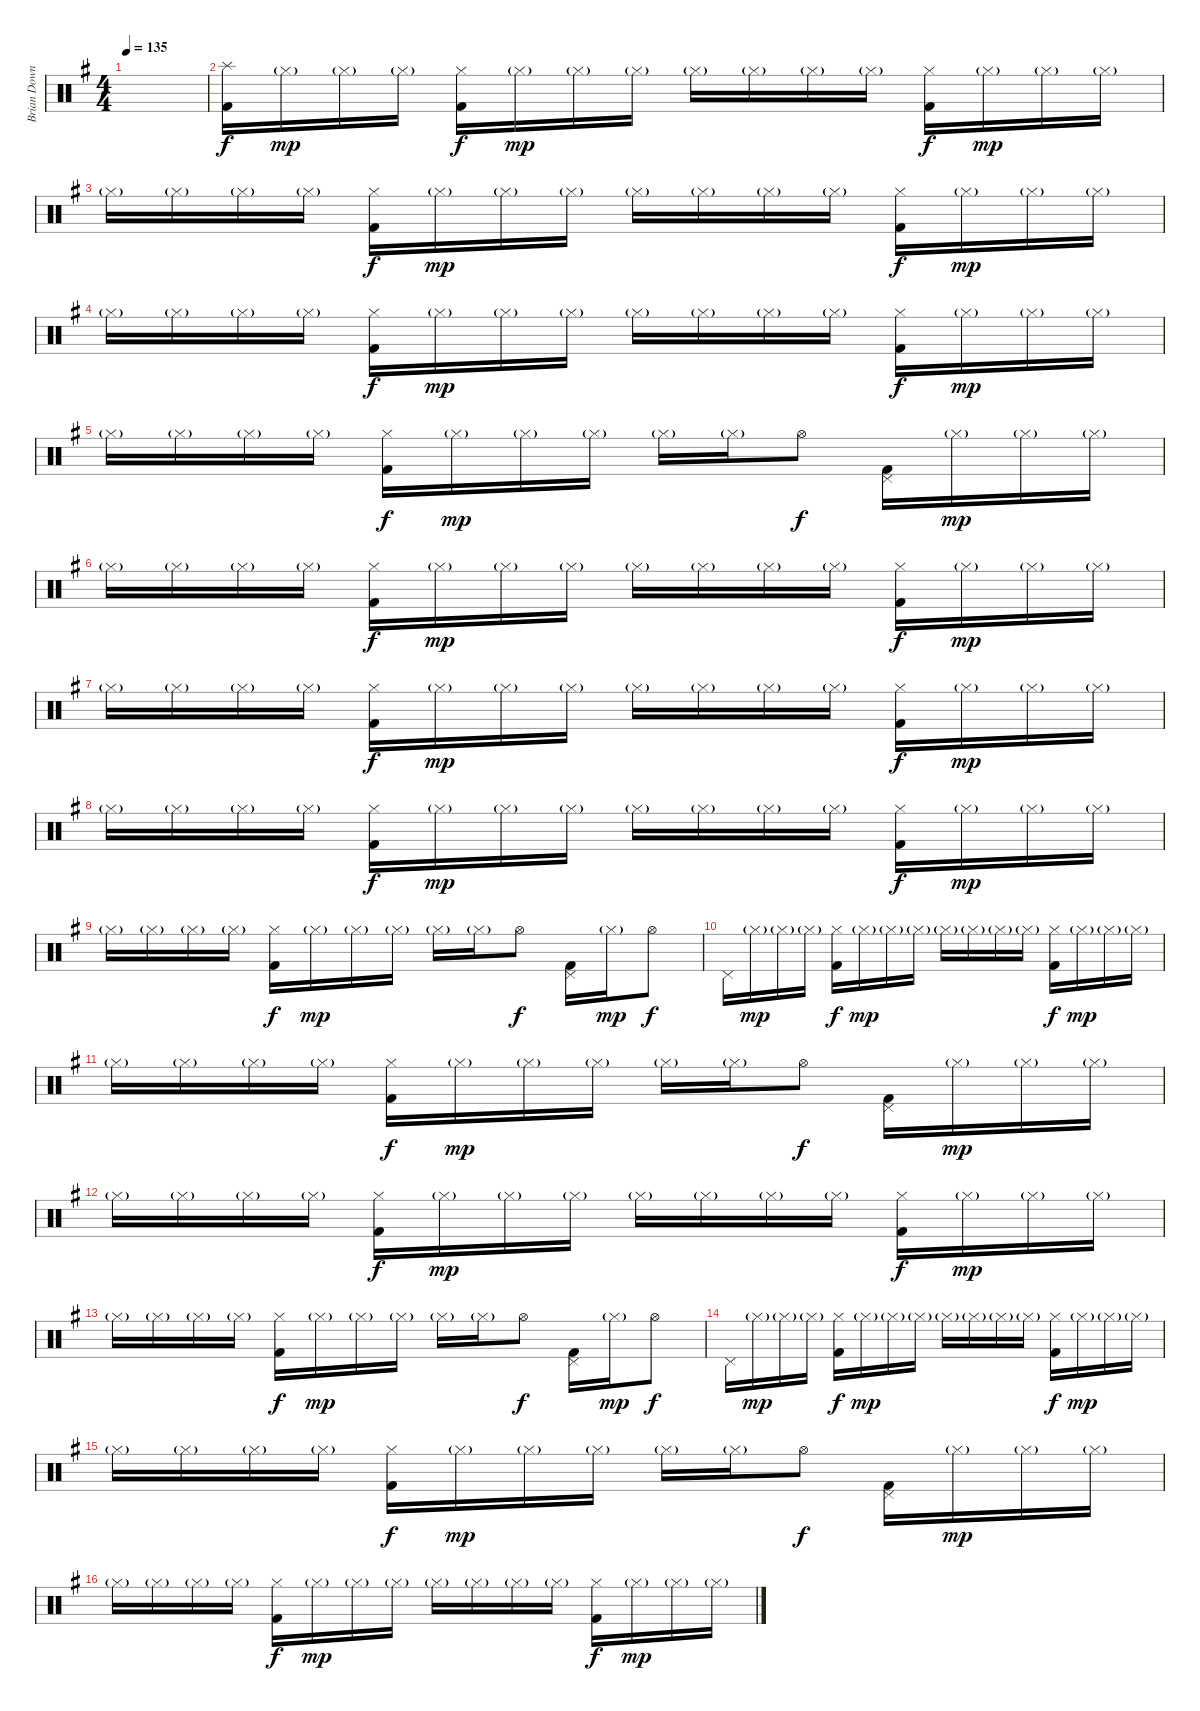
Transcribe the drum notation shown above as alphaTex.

\track ("Brian Downey" "Brian Down") {instrument percussion}
\staff {score}
\articulation defaults
\ts (4 4)
\tempo 135
\clef neutral
\ks eminor
|
("Splash (hit)" "Kick (hit) 2").16 "Hi-Hat (closed)"{g}.16{dy mp} "Hi-Hat (closed)"{g}.16 "Hi-Hat (closed)"{g}.16 ("Hi-Hat (closed)" "Kick (hit) 2").16{dy f} "Hi-Hat (closed)"{g}.16{dy mp} "Hi-Hat (closed)"{g}.16 "Hi-Hat (closed)"{g}.16 "Hi-Hat (closed)"{g}.16 "Hi-Hat (closed)"{g}.16 "Hi-Hat (closed)"{g}.16 "Hi-Hat (closed)"{g}.16 ("Hi-Hat (closed)" "Kick (hit) 2").16{dy f} "Hi-Hat (closed)"{g}.16{dy mp} "Hi-Hat (closed)"{g}.16 "Hi-Hat (closed)"{g}.16 |
"Hi-Hat (closed)"{g}.16 "Hi-Hat (closed)"{g}.16 "Hi-Hat (closed)"{g}.16 "Hi-Hat (closed)"{g}.16 ("Hi-Hat (closed)" "Kick (hit) 2").16{dy f} "Hi-Hat (closed)"{g}.16{dy mp} "Hi-Hat (closed)"{g}.16 "Hi-Hat (closed)"{g}.16 "Hi-Hat (closed)"{g}.16 "Hi-Hat (closed)"{g}.16 "Hi-Hat (closed)"{g}.16 "Hi-Hat (closed)"{g}.16 ("Hi-Hat (closed)" "Kick (hit) 2").16{dy f} "Hi-Hat (closed)"{g}.16{dy mp} "Hi-Hat (closed)"{g}.16 "Hi-Hat (closed)"{g}.16 |
"Hi-Hat (closed)"{g}.16 "Hi-Hat (closed)"{g}.16 "Hi-Hat (closed)"{g}.16 "Hi-Hat (closed)"{g}.16 ("Hi-Hat (closed)" "Kick (hit) 2").16{dy f} "Hi-Hat (closed)"{g}.16{dy mp} "Hi-Hat (closed)"{g}.16 "Hi-Hat (closed)"{g}.16 "Hi-Hat (closed)"{g}.16 "Hi-Hat (closed)"{g}.16 "Hi-Hat (closed)"{g}.16 "Hi-Hat (closed)"{g}.16 ("Hi-Hat (closed)" "Kick (hit) 2").16{dy f} "Hi-Hat (closed)"{g}.16{dy mp} "Hi-Hat (closed)"{g}.16 "Hi-Hat (closed)"{g}.16 |
"Hi-Hat (closed)"{g}.16 "Hi-Hat (closed)"{g}.16 "Hi-Hat (closed)"{g}.16 "Hi-Hat (closed)"{g}.16 ("Hi-Hat (closed)" "Kick (hit) 2").16{dy f} "Hi-Hat (closed)"{g}.16{dy mp} "Hi-Hat (closed)"{g}.16 "Hi-Hat (closed)"{g}.16 "Hi-Hat (closed)"{g}.16 "Hi-Hat (closed)"{g}.16 "Hi-Hat (open)".8{dy f} ("Pedal Hi-Hat (hit)" "Kick (hit) 2").16 "Hi-Hat (closed)"{g}.16{dy mp} "Hi-Hat (closed)"{g}.16 "Hi-Hat (closed)"{g}.16 |
"Hi-Hat (closed)"{g}.16 "Hi-Hat (closed)"{g}.16 "Hi-Hat (closed)"{g}.16 "Hi-Hat (closed)"{g}.16 ("Hi-Hat (closed)" "Kick (hit) 2").16{dy f} "Hi-Hat (closed)"{g}.16{dy mp} "Hi-Hat (closed)"{g}.16 "Hi-Hat (closed)"{g}.16 "Hi-Hat (closed)"{g}.16 "Hi-Hat (closed)"{g}.16 "Hi-Hat (closed)"{g}.16 "Hi-Hat (closed)"{g}.16 ("Hi-Hat (closed)" "Kick (hit) 2").16{dy f} "Hi-Hat (closed)"{g}.16{dy mp} "Hi-Hat (closed)"{g}.16 "Hi-Hat (closed)"{g}.16 |
"Hi-Hat (closed)"{g}.16 "Hi-Hat (closed)"{g}.16 "Hi-Hat (closed)"{g}.16 "Hi-Hat (closed)"{g}.16 ("Hi-Hat (closed)" "Kick (hit) 2").16{dy f} "Hi-Hat (closed)"{g}.16{dy mp} "Hi-Hat (closed)"{g}.16 "Hi-Hat (closed)"{g}.16 "Hi-Hat (closed)"{g}.16 "Hi-Hat (closed)"{g}.16 "Hi-Hat (closed)"{g}.16 "Hi-Hat (closed)"{g}.16 ("Hi-Hat (closed)" "Kick (hit) 2").16{dy f} "Hi-Hat (closed)"{g}.16{dy mp} "Hi-Hat (closed)"{g}.16 "Hi-Hat (closed)"{g}.16 |
"Hi-Hat (closed)"{g}.16 "Hi-Hat (closed)"{g}.16 "Hi-Hat (closed)"{g}.16 "Hi-Hat (closed)"{g}.16 ("Hi-Hat (closed)" "Kick (hit) 2").16{dy f} "Hi-Hat (closed)"{g}.16{dy mp} "Hi-Hat (closed)"{g}.16 "Hi-Hat (closed)"{g}.16 "Hi-Hat (closed)"{g}.16 "Hi-Hat (closed)"{g}.16 "Hi-Hat (closed)"{g}.16 "Hi-Hat (closed)"{g}.16 ("Hi-Hat (closed)" "Kick (hit) 2").16{dy f} "Hi-Hat (closed)"{g}.16{dy mp} "Hi-Hat (closed)"{g}.16 "Hi-Hat (closed)"{g}.16 |
"Hi-Hat (closed)"{g}.16 "Hi-Hat (closed)"{g}.16 "Hi-Hat (closed)"{g}.16 "Hi-Hat (closed)"{g}.16 ("Hi-Hat (closed)" "Kick (hit) 2").16{dy f} "Hi-Hat (closed)"{g}.16{dy mp} "Hi-Hat (closed)"{g}.16 "Hi-Hat (closed)"{g}.16 "Hi-Hat (closed)"{g}.16 "Hi-Hat (closed)"{g}.16 "Hi-Hat (open)".8{dy f} ("Pedal Hi-Hat (hit)" "Kick (hit) 2").16 "Hi-Hat (closed)"{g}.16{dy mp} "Hi-Hat (open)".8{dy f} |
"Pedal Hi-Hat (hit)".16 "Hi-Hat (closed)"{g}.16{dy mp} "Hi-Hat (closed)"{g}.16 "Hi-Hat (closed)"{g}.16 ("Hi-Hat (closed)" "Kick (hit) 2").16{dy f} "Hi-Hat (closed)"{g}.16{dy mp} "Hi-Hat (closed)"{g}.16 "Hi-Hat (closed)"{g}.16 "Hi-Hat (closed)"{g}.16 "Hi-Hat (closed)"{g}.16 "Hi-Hat (closed)"{g}.16 "Hi-Hat (closed)"{g}.16 ("Hi-Hat (closed)" "Kick (hit) 2").16{dy f} "Hi-Hat (closed)"{g}.16{dy mp} "Hi-Hat (closed)"{g}.16 "Hi-Hat (closed)"{g}.16 |
"Hi-Hat (closed)"{g}.16 "Hi-Hat (closed)"{g}.16 "Hi-Hat (closed)"{g}.16 "Hi-Hat (closed)"{g}.16 ("Hi-Hat (closed)" "Kick (hit) 2").16{dy f} "Hi-Hat (closed)"{g}.16{dy mp} "Hi-Hat (closed)"{g}.16 "Hi-Hat (closed)"{g}.16 "Hi-Hat (closed)"{g}.16 "Hi-Hat (closed)"{g}.16 "Hi-Hat (open)".8{dy f} ("Pedal Hi-Hat (hit)" "Kick (hit) 2").16 "Hi-Hat (closed)"{g}.16{dy mp} "Hi-Hat (closed)"{g}.16 "Hi-Hat (closed)"{g}.16 |
"Hi-Hat (closed)"{g}.16 "Hi-Hat (closed)"{g}.16 "Hi-Hat (closed)"{g}.16 "Hi-Hat (closed)"{g}.16 ("Hi-Hat (closed)" "Kick (hit) 2").16{dy f} "Hi-Hat (closed)"{g}.16{dy mp} "Hi-Hat (closed)"{g}.16 "Hi-Hat (closed)"{g}.16 "Hi-Hat (closed)"{g}.16 "Hi-Hat (closed)"{g}.16 "Hi-Hat (closed)"{g}.16 "Hi-Hat (closed)"{g}.16 ("Hi-Hat (closed)" "Kick (hit) 2").16{dy f} "Hi-Hat (closed)"{g}.16{dy mp} "Hi-Hat (closed)"{g}.16 "Hi-Hat (closed)"{g}.16 |
"Hi-Hat (closed)"{g}.16 "Hi-Hat (closed)"{g}.16 "Hi-Hat (closed)"{g}.16 "Hi-Hat (closed)"{g}.16 ("Hi-Hat (closed)" "Kick (hit) 2").16{dy f} "Hi-Hat (closed)"{g}.16{dy mp} "Hi-Hat (closed)"{g}.16 "Hi-Hat (closed)"{g}.16 "Hi-Hat (closed)"{g}.16 "Hi-Hat (closed)"{g}.16 "Hi-Hat (open)".8{dy f} ("Pedal Hi-Hat (hit)" "Kick (hit) 2").16 "Hi-Hat (closed)"{g}.16{dy mp} "Hi-Hat (open)".8{dy f} |
"Pedal Hi-Hat (hit)".16 "Hi-Hat (closed)"{g}.16{dy mp} "Hi-Hat (closed)"{g}.16 "Hi-Hat (closed)"{g}.16 ("Hi-Hat (closed)" "Kick (hit) 2").16{dy f} "Hi-Hat (closed)"{g}.16{dy mp} "Hi-Hat (closed)"{g}.16 "Hi-Hat (closed)"{g}.16 "Hi-Hat (closed)"{g}.16 "Hi-Hat (closed)"{g}.16 "Hi-Hat (closed)"{g}.16 "Hi-Hat (closed)"{g}.16 ("Hi-Hat (closed)" "Kick (hit) 2").16{dy f} "Hi-Hat (closed)"{g}.16{dy mp} "Hi-Hat (closed)"{g}.16 "Hi-Hat (closed)"{g}.16 |
"Hi-Hat (closed)"{g}.16 "Hi-Hat (closed)"{g}.16 "Hi-Hat (closed)"{g}.16 "Hi-Hat (closed)"{g}.16 ("Hi-Hat (closed)" "Kick (hit) 2").16{dy f} "Hi-Hat (closed)"{g}.16{dy mp} "Hi-Hat (closed)"{g}.16 "Hi-Hat (closed)"{g}.16 "Hi-Hat (closed)"{g}.16 "Hi-Hat (closed)"{g}.16 "Hi-Hat (open)".8{dy f} ("Pedal Hi-Hat (hit)" "Kick (hit) 2").16 "Hi-Hat (closed)"{g}.16{dy mp} "Hi-Hat (closed)"{g}.16 "Hi-Hat (closed)"{g}.16 |
"Hi-Hat (closed)"{g}.16 "Hi-Hat (closed)"{g}.16 "Hi-Hat (closed)"{g}.16 "Hi-Hat (closed)"{g}.16 ("Hi-Hat (closed)" "Kick (hit) 2").16{dy f} "Hi-Hat (closed)"{g}.16{dy mp} "Hi-Hat (closed)"{g}.16 "Hi-Hat (closed)"{g}.16 "Hi-Hat (closed)"{g}.16 "Hi-Hat (closed)"{g}.16 "Hi-Hat (closed)"{g}.16 "Hi-Hat (closed)"{g}.16 ("Hi-Hat (closed)" "Kick (hit) 2").16{dy f} "Hi-Hat (closed)"{g}.16{dy mp} "Hi-Hat (closed)"{g}.16 "Hi-Hat (closed)"{g}.16
